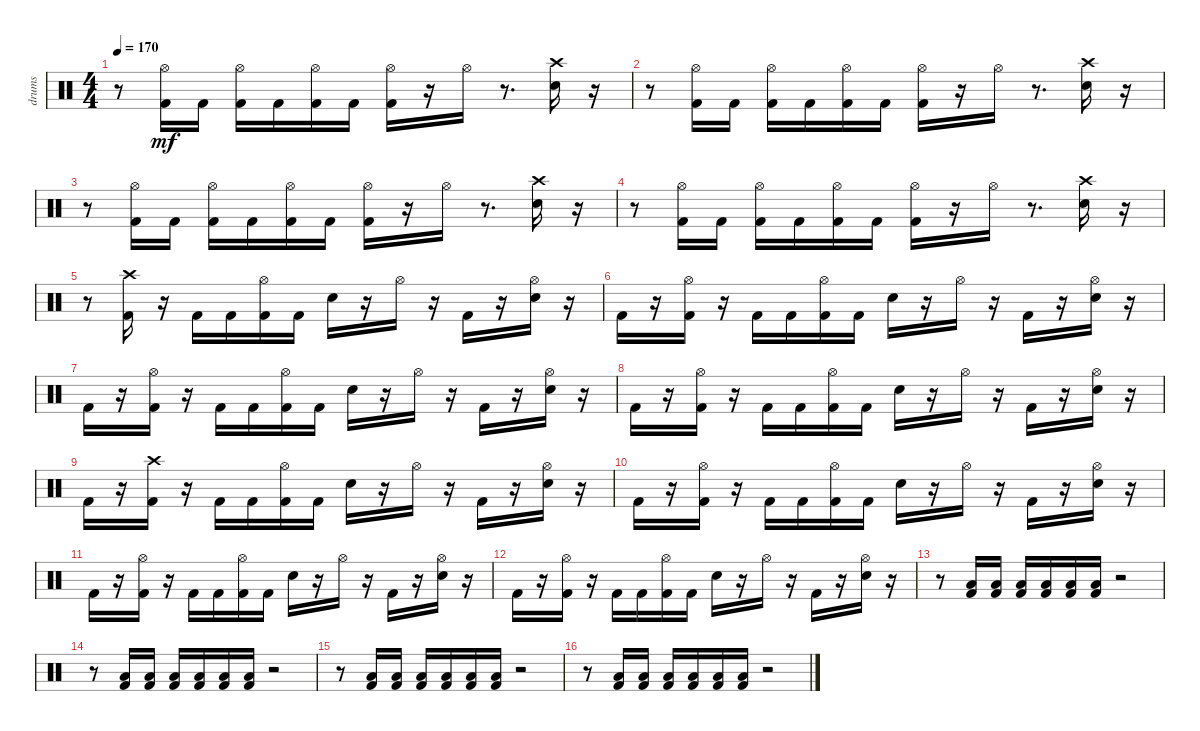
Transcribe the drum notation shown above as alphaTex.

\track ("drums               " "drums     ") {instrument percussion}
\staff {score}
\articulation defaults
\ts (4 4)
\tempo 170
\clef neutral
\ks c
r.8{dy mf} ("Kick (hit) 2" "Hi-Hat (open)").16 "Kick (hit) 2".16 ("Kick (hit) 2" "Hi-Hat (open)").16 "Kick (hit) 2".16 ("Kick (hit) 2" "Hi-Hat (open)").16 "Kick (hit) 2".16 ("Kick (hit) 2" "Hi-Hat (open)").16 r.16 "Hi-Hat (open)".16 r.8{d} ("Snare (hit) 2" "Crash high (hit)").16 r.16 |
r.8 ("Kick (hit) 2" "Hi-Hat (open)").16 "Kick (hit) 2".16 ("Kick (hit) 2" "Hi-Hat (open)").16 "Kick (hit) 2".16 ("Kick (hit) 2" "Hi-Hat (open)").16 "Kick (hit) 2".16 ("Kick (hit) 2" "Hi-Hat (open)").16 r.16 "Hi-Hat (open)".16 r.8{d} ("Snare (hit) 2" "Crash high (hit)").16 r.16 |
r.8 ("Kick (hit) 2" "Hi-Hat (open)").16 "Kick (hit) 2".16 ("Kick (hit) 2" "Hi-Hat (open)").16 "Kick (hit) 2".16 ("Kick (hit) 2" "Hi-Hat (open)").16 "Kick (hit) 2".16 ("Kick (hit) 2" "Hi-Hat (open)").16 r.16 "Hi-Hat (open)".16 r.8{d} ("Snare (hit) 2" "Crash high (hit)").16 r.16 |
r.8 ("Kick (hit) 2" "Hi-Hat (open)").16 "Kick (hit) 2".16 ("Kick (hit) 2" "Hi-Hat (open)").16 "Kick (hit) 2".16 ("Kick (hit) 2" "Hi-Hat (open)").16 "Kick (hit) 2".16 ("Kick (hit) 2" "Hi-Hat (open)").16 r.16 "Hi-Hat (open)".16 r.8{d} ("Snare (hit) 2" "Crash high (hit)").16 r.16 |
r.8 ("Kick (hit) 2" "Crash high (hit)").16 r.16 "Kick (hit) 2".16 "Kick (hit) 2".16 ("Hi-Hat (open)" "Kick (hit) 2").16 "Kick (hit) 2".16 "Snare (hit) 2".16 r.16 "Hi-Hat (open)".16 r.16 "Kick (hit) 2".16 r.16 ("Hi-Hat (open)" "Snare (hit) 2").16 r.16 |
"Kick (hit) 2".16 r.16 ("Hi-Hat (open)" "Kick (hit) 2").16 r.16 "Kick (hit) 2".16 "Kick (hit) 2".16 ("Kick (hit) 2" "Hi-Hat (open)").16 "Kick (hit) 2".16 "Snare (hit) 2".16 r.16 "Hi-Hat (open)".16 r.16 "Kick (hit) 2".16 r.16 ("Hi-Hat (open)" "Snare (hit) 2").16 r.16 |
"Kick (hit) 2".16 r.16 ("Hi-Hat (open)" "Kick (hit) 2").16 r.16 "Kick (hit) 2".16 "Kick (hit) 2".16 ("Kick (hit) 2" "Hi-Hat (open)").16 "Kick (hit) 2".16 "Snare (hit) 2".16 r.16 "Hi-Hat (open)".16 r.16 "Kick (hit) 2".16 r.16 ("Hi-Hat (open)" "Snare (hit) 2").16 r.16 |
"Kick (hit) 2".16 r.16 ("Hi-Hat (open)" "Kick (hit) 2").16 r.16 "Kick (hit) 2".16 "Kick (hit) 2".16 ("Kick (hit) 2" "Hi-Hat (open)").16 "Kick (hit) 2".16 "Snare (hit) 2".16 r.16 "Hi-Hat (open)".16 r.16 "Kick (hit) 2".16 r.16 ("Hi-Hat (open)" "Snare (hit) 2").16 r.16 |
"Kick (hit) 2".16 r.16 ("Kick (hit) 2" "Crash high (hit)").16 r.16 "Kick (hit) 2".16 "Kick (hit) 2".16 ("Kick (hit) 2" "Hi-Hat (open)").16 "Kick (hit) 2".16 "Snare (hit) 2".16 r.16 "Hi-Hat (open)".16 r.16 "Kick (hit) 2".16 r.16 ("Hi-Hat (open)" "Snare (hit) 2").16 r.16 |
"Kick (hit) 2".16 r.16 ("Hi-Hat (open)" "Kick (hit) 2").16 r.16 "Kick (hit) 2".16 "Kick (hit) 2".16 ("Kick (hit) 2" "Hi-Hat (open)").16 "Kick (hit) 2".16 "Snare (hit) 2".16 r.16 "Hi-Hat (open)".16 r.16 "Kick (hit) 2".16 r.16 ("Hi-Hat (open)" "Snare (hit) 2").16 r.16 |
"Kick (hit) 2".16 r.16 ("Hi-Hat (open)" "Kick (hit) 2").16 r.16 "Kick (hit) 2".16 "Kick (hit) 2".16 ("Kick (hit) 2" "Hi-Hat (open)").16 "Kick (hit) 2".16 "Snare (hit) 2".16 r.16 "Hi-Hat (open)".16 r.16 "Kick (hit) 2".16 r.16 ("Hi-Hat (open)" "Snare (hit) 2").16 r.16 |
"Kick (hit) 2".16 r.16 ("Hi-Hat (open)" "Kick (hit) 2").16 r.16 "Kick (hit) 2".16 "Kick (hit) 2".16 ("Kick (hit) 2" "Hi-Hat (open)").16 "Kick (hit) 2".16 "Snare (hit) 2".16 r.16 "Hi-Hat (open)".16 r.16 "Kick (hit) 2".16 r.16 ("Hi-Hat (open)" "Snare (hit) 2").16 r.16 |
r.8 ("Kick (hit) 2" "Low Floor Tom (hit)").16 ("Kick (hit) 2" "Low Floor Tom (hit)").16 ("Kick (hit) 2" "Low Floor Tom (hit)").16 ("Kick (hit) 2" "Low Floor Tom (hit)").16 ("Kick (hit) 2" "Low Floor Tom (hit)").16 ("Kick (hit) 2" "Low Floor Tom (hit)").16 r.2 |
r.8 ("Kick (hit) 2" "Low Floor Tom (hit)").16 ("Kick (hit) 2" "Low Floor Tom (hit)").16 ("Kick (hit) 2" "Low Floor Tom (hit)").16 ("Kick (hit) 2" "Low Floor Tom (hit)").16 ("Kick (hit) 2" "Low Floor Tom (hit)").16 ("Kick (hit) 2" "Low Floor Tom (hit)").16 r.2 |
r.8 ("Kick (hit) 2" "Low Floor Tom (hit)").16 ("Kick (hit) 2" "Low Floor Tom (hit)").16 ("Kick (hit) 2" "Low Floor Tom (hit)").16 ("Kick (hit) 2" "Low Floor Tom (hit)").16 ("Kick (hit) 2" "Low Floor Tom (hit)").16 ("Kick (hit) 2" "Low Floor Tom (hit)").16 r.2 |
r.8 ("Kick (hit) 2" "Low Floor Tom (hit)").16 ("Kick (hit) 2" "Low Floor Tom (hit)").16 ("Kick (hit) 2" "Low Floor Tom (hit)").16 ("Kick (hit) 2" "Low Floor Tom (hit)").16 ("Kick (hit) 2" "Low Floor Tom (hit)").16 ("Kick (hit) 2" "Low Floor Tom (hit)").16 r.2
